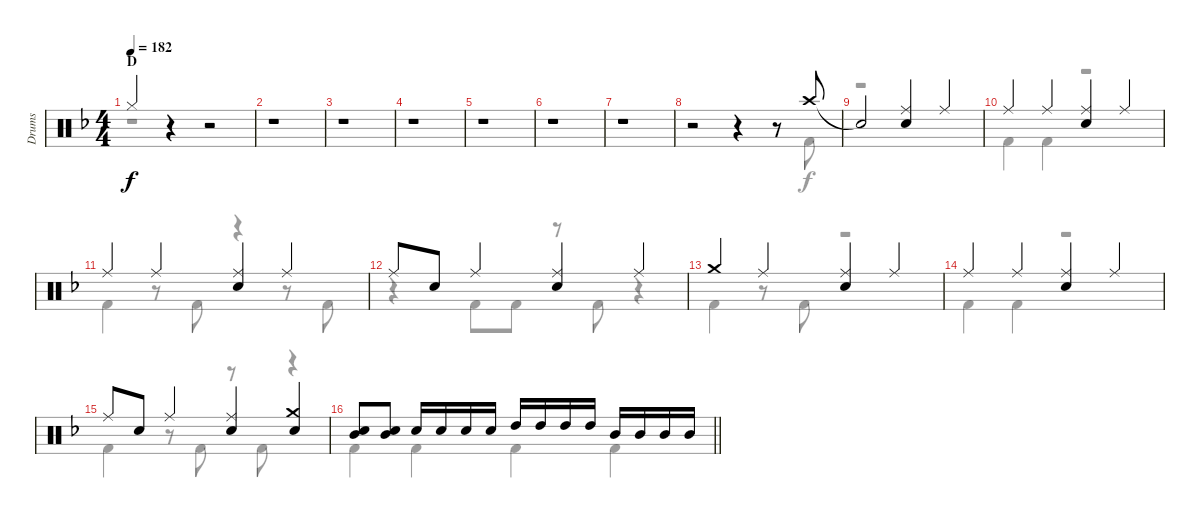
\track ("Drums" "Drums") {instrument percussion}
\staff {score}
\articulation defaults
\voice
\ts (4 4)
\section ("" "D")
\tempo 182
\clef neutral
\ks f "Hi-Hat (closed)".4{dy f}
r.4 r.2 |
r.1 |
r.1 |
r.1 |
r.1 |
r.1 |
r.1 |
r.2 r.4 r.8 "Crash high (hit)".8 |
"Snare (hit)"{t}.2 ("Ride (middle)" "Snare (hit) 2").4 "Ride (middle)".4 |
"Ride (middle)".4 "Ride (middle)".4 ("Ride (middle)" "Snare (hit) 2").4 "Ride (middle)".4 |
"Ride (middle)".4 "Ride (middle)".4 ("Ride (middle)" "Snare (hit) 2").4 "Ride (middle)".4 |
"Ride (middle)".8 "Snare (hit) 2".8 "Ride (middle)".4 ("Ride (middle)" "Snare (hit) 2").4 "Ride (middle)".4 |
"Crash medium (hit)".4 "Ride (middle)".4 ("Ride (middle)" "Snare (hit) 2").4 "Ride (middle)".4 |
"Ride (middle)".4 "Ride (middle)".4 ("Ride (middle)" "Snare (hit) 2").4 "Ride (middle)".4 |
"Ride (middle)".8 "Snare (hit) 2".8 "Ride (middle)".4 ("Ride (middle)" "Snare (hit) 2").4 ("Crash medium (hit)" "Snare (hit) 2").4 |
\barLineRight lightlight
("Mid Tom (hit)" "Snare (hit) 2").8 ("Mid Tom (hit)" "Snare (hit) 2").8 "Snare (hit) 2".16 "Snare (hit) 2".16 "Snare (hit) 2".16 "Snare (hit) 2".16 "High Tom (hit)".16 "High Tom (hit)".16 "High Tom (hit)".16 "High Tom (hit)".16 "Mid Tom (hit)".16 "Mid Tom (hit)".16 "Mid Tom (hit)".16 "Mid Tom (hit)".16
\voice
\clef neutral
\ottava regular
\simile none
\ks f
r.1{dy f} |
r.1 |
r.1 |
r.1 |
r.1 |
r.1 |
r.1 |
r.2 r.4 r.8 "Kick (hit) 2".8 |
r.1 |
"Kick (hit) 2".4 "Kick (hit) 2".4 r.2 |
"Kick (hit) 2".4 r.8 "Kick (hit) 2".8 r.4 r.8 "Kick (hit) 2".8 |
r.4 "Kick (hit) 2".8 "Kick (hit) 2".8 r.8 "Kick (hit) 2".8 r.4 |
"Kick (hit) 2".4 r.8 "Kick (hit) 2".8 r.2 |
"Kick (hit) 2".4 "Kick (hit) 2".4 r.2 |
"Kick (hit) 2".4 r.8 "Kick (hit) 2".8 r.8 "Kick (hit) 2".8 r.4 |
\barLineRight lightlight "Kick (hit) 2".4 "Kick (hit) 2".4 "Kick (hit) 2".4 "Kick (hit) 2".4
